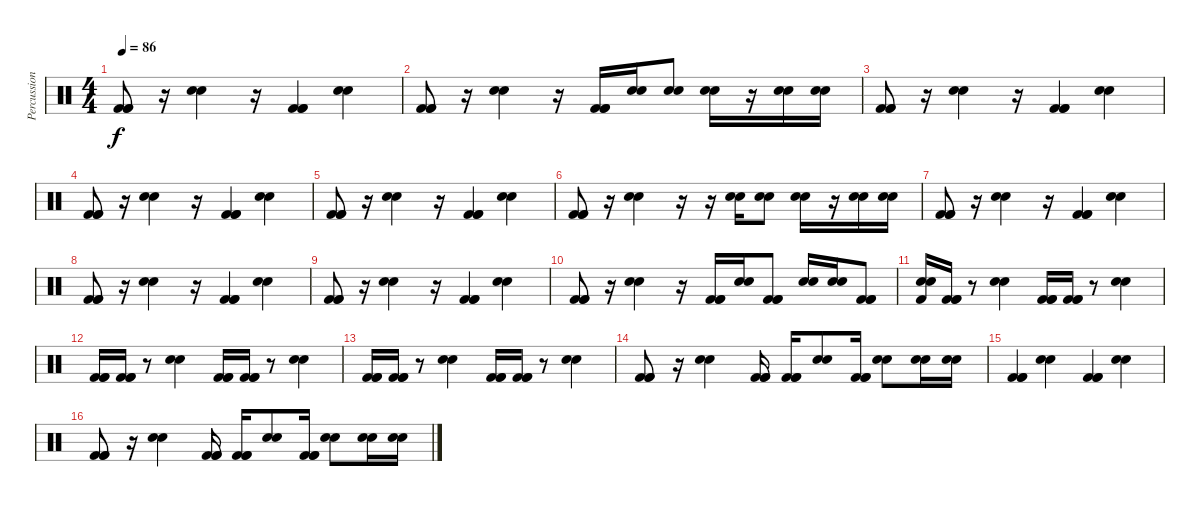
\track ("Percussions" "Percussion") {instrument percussion}
\staff {score}
\articulation defaults
\ts (4 4)
\tempo 86
\clef neutral
\ks c
("Kick (hit) 2" "Kick (hit) 2" "Kick (hit) 2").8{dy f} r.16 ("Snare (hit) 2" "Snare (hit) 2").4 r.16 ("Kick (hit) 2" "Kick (hit) 2" "Kick (hit) 2").4 ("Snare (hit) 2" "Snare (hit) 2").4 |
("Kick (hit) 2" "Kick (hit) 2" "Kick (hit) 2").8 r.16 ("Snare (hit) 2" "Snare (hit) 2").4 r.16 ("Kick (hit) 2" "Kick (hit) 2" "Kick (hit) 2").16 ("Snare (hit) 2" "Snare (hit) 2").16 ("Snare (hit) 2" "Snare (hit) 2").8 ("Snare (hit) 2" "Snare (hit) 2").16 r.16 ("Snare (hit) 2" "Snare (hit) 2").16 ("Snare (hit) 2" "Snare (hit) 2").16 |
("Kick (hit) 2" "Kick (hit) 2" "Kick (hit) 2").8 r.16 ("Snare (hit) 2" "Snare (hit) 2").4 r.16 ("Kick (hit) 2" "Kick (hit) 2" "Kick (hit) 2").4 ("Snare (hit) 2" "Snare (hit) 2").4 |
("Kick (hit) 2" "Kick (hit) 2" "Kick (hit) 2").8 r.16 ("Snare (hit) 2" "Snare (hit) 2").4 r.16 ("Kick (hit) 2" "Kick (hit) 2" "Kick (hit) 2").4 ("Snare (hit) 2" "Snare (hit) 2").4 |
("Kick (hit) 2" "Kick (hit) 2" "Kick (hit) 2").8 r.16 ("Snare (hit) 2" "Snare (hit) 2").4 r.16 ("Kick (hit) 2" "Kick (hit) 2" "Kick (hit) 2").4 ("Snare (hit) 2" "Snare (hit) 2").4 |
("Kick (hit) 2" "Kick (hit) 2" "Kick (hit) 2").8 r.16 ("Snare (hit) 2" "Snare (hit) 2").4 r.16 r.16 ("Snare (hit) 2" "Snare (hit) 2").16 ("Snare (hit) 2" "Snare (hit) 2").8 ("Snare (hit) 2" "Snare (hit) 2").16 r.16 ("Snare (hit) 2" "Snare (hit) 2").16 ("Snare (hit) 2" "Snare (hit) 2").16 |
("Kick (hit) 2" "Kick (hit) 2" "Kick (hit) 2").8 r.16 ("Snare (hit) 2" "Snare (hit) 2").4 r.16 ("Kick (hit) 2" "Kick (hit) 2" "Kick (hit) 2").4 ("Snare (hit) 2" "Snare (hit) 2").4 |
("Kick (hit) 2" "Kick (hit) 2" "Kick (hit) 2").8 r.16 ("Snare (hit) 2" "Snare (hit) 2").4 r.16 ("Kick (hit) 2" "Kick (hit) 2" "Kick (hit) 2").4 ("Snare (hit) 2" "Snare (hit) 2").4 |
("Kick (hit) 2" "Kick (hit) 2" "Kick (hit) 2").8 r.16 ("Snare (hit) 2" "Snare (hit) 2").4 r.16 ("Kick (hit) 2" "Kick (hit) 2" "Kick (hit) 2").4 ("Snare (hit) 2" "Snare (hit) 2").4 |
("Kick (hit) 2" "Kick (hit) 2" "Kick (hit) 2").8 r.16 ("Snare (hit) 2" "Snare (hit) 2").4 r.16 ("Kick (hit) 2" "Kick (hit) 2" "Kick (hit) 2").16 ("Snare (hit) 2" "Snare (hit) 2").16 ("Kick (hit) 2" "Kick (hit) 2" "Kick (hit) 2").8 ("Snare (hit) 2" "Snare (hit) 2").16 ("Snare (hit) 2" "Snare (hit) 2").16 ("Kick (hit) 2" "Kick (hit) 2" "Kick (hit) 2").8 |
("Kick (hit) 2" "Snare (hit) 2" "Snare (hit) 2").16 ("Kick (hit) 2" "Kick (hit) 2" "Kick (hit) 2").16 r.8 ("Snare (hit) 2" "Snare (hit) 2").4 ("Kick (hit) 2" "Kick (hit) 2" "Kick (hit) 2").16 ("Kick (hit) 2" "Kick (hit) 2" "Kick (hit) 2").16 r.8 ("Snare (hit) 2" "Snare (hit) 2").4 |
("Kick (hit) 2" "Kick (hit) 2" "Kick (hit) 2").16 ("Kick (hit) 2" "Kick (hit) 2" "Kick (hit) 2").16 r.8 ("Snare (hit) 2" "Snare (hit) 2").4 ("Kick (hit) 2" "Kick (hit) 2" "Kick (hit) 2").16 ("Kick (hit) 2" "Kick (hit) 2" "Kick (hit) 2").16 r.8 ("Snare (hit) 2" "Snare (hit) 2").4 |
("Kick (hit) 2" "Kick (hit) 2" "Kick (hit) 2").16 ("Kick (hit) 2" "Kick (hit) 2" "Kick (hit) 2").16 r.8 ("Snare (hit) 2" "Snare (hit) 2").4 ("Kick (hit) 2" "Kick (hit) 2" "Kick (hit) 2").16 ("Kick (hit) 2" "Kick (hit) 2" "Kick (hit) 2").16 r.8 ("Snare (hit) 2" "Snare (hit) 2").4 |
("Kick (hit) 2" "Kick (hit) 2" "Kick (hit) 2").8 r.16 ("Snare (hit) 2" "Snare (hit) 2").4 ("Kick (hit) 2" "Kick (hit) 2" "Kick (hit) 2").16 ("Kick (hit) 2" "Kick (hit) 2" "Kick (hit) 2").16 ("Snare (hit) 2" "Snare (hit) 2").8 ("Kick (hit) 2" "Kick (hit) 2" "Kick (hit) 2").16 ("Snare (hit) 2" "Snare (hit) 2").8 ("Snare (hit) 2" "Snare (hit) 2").16 ("Snare (hit) 2" "Snare (hit) 2").16 |
("Kick (hit) 2" "Kick (hit) 2" "Kick (hit) 2").4 ("Snare (hit) 2" "Snare (hit) 2").4 ("Kick (hit) 2" "Kick (hit) 2" "Kick (hit) 2").4 ("Snare (hit) 2" "Snare (hit) 2").4 |
("Kick (hit) 2" "Kick (hit) 2" "Kick (hit) 2").8 r.16 ("Snare (hit) 2" "Snare (hit) 2").4 ("Kick (hit) 2" "Kick (hit) 2" "Kick (hit) 2").16 ("Kick (hit) 2" "Kick (hit) 2" "Kick (hit) 2").16 ("Snare (hit) 2" "Snare (hit) 2").8 ("Kick (hit) 2" "Kick (hit) 2" "Kick (hit) 2").16 ("Snare (hit) 2" "Snare (hit) 2").8 ("Snare (hit) 2" "Snare (hit) 2").16 ("Snare (hit) 2" "Snare (hit) 2").16
